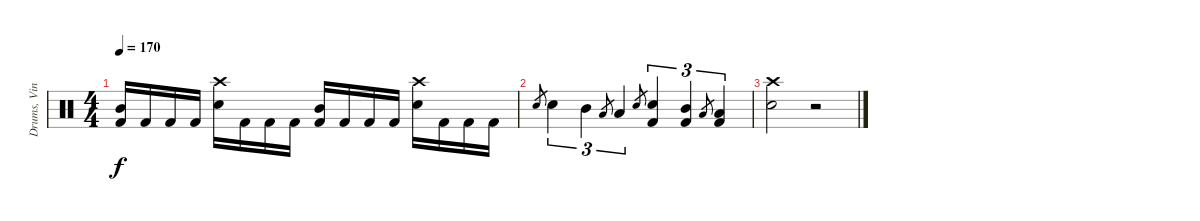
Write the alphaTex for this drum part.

\track ("Drums, Vinnie" "Drums, Vin") {instrument percussion}
\staff {score}
\articulation defaults
\ts (4 4)
\tempo 170
\clef neutral
\ks c
("Mid Tom (hit)" "Kick (hit) 2").16{dy f} "Kick (hit) 2".16 "Kick (hit) 2".16 "Kick (hit) 2".16 ("Crash high (hit)" "Electric Snare (hit)").16 "Kick (hit) 2".16 "Kick (hit) 2".16 "Kick (hit) 2".16 ("Mid Tom (hit)" "Kick (hit) 2").16 "Kick (hit) 2".16 "Kick (hit) 2".16 "Kick (hit) 2".16 ("Crash high (hit)" "Electric Snare (hit)").16 "Kick (hit) 2".16 "Kick (hit) 2".16 "Kick (hit) 2".16 |
"Electric Snare (hit)".8{gr} "Electric Snare (hit)".4{tu (3 2)} "Mid Tom (hit)".4{tu (3 2)} "Low Tom (hit)".8{gr} "Low Tom (hit)".4{tu (3 2)} "Electric Snare (hit)".8{gr} ("Electric Snare (hit)" "Kick (hit) 2").4{tu (3 2)} ("Mid Tom (hit)" "Kick (hit) 2").4{tu (3 2)} "Low Tom (hit)".8{gr} ("Low Tom (hit)" "Kick (hit) 2").4{tu (3 2)} |
("Crash high (hit)" "Electric Snare (hit)").2 r.2
